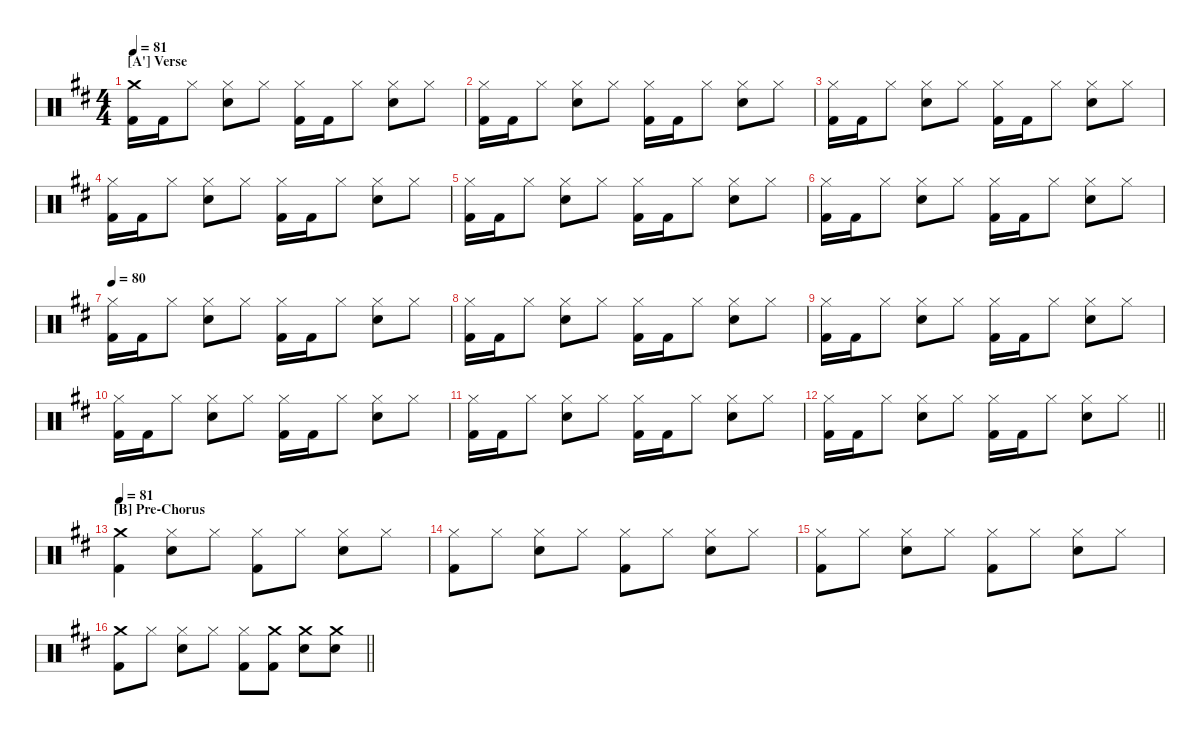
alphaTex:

\defaultSystemsLayout 4
\hideDynamics
\bracketExtendMode nobrackets
\singleTrackTrackNamePolicy hidden
\multiTrackTrackNamePolicy hidden
\otherSystemsTrackNameOrientation horizontal
\track ("Drumkit" "Drums") {defaultSystemsLayout 4 instrument percussion}
\staff {score}
\articulation defaults
\ts (4 4)
\section ("A'" "Verse")
\tempo 81
\clef neutral
\ks d
("Kick (hit) 2"{acc forcenatural} "Crash medium (hit)"{acc forcenatural}).16{dy f beam Down} "Kick (hit) 2"{acc forcenatural}.16{beam Down} "Hi-Hat (closed)"{acc forcenatural}.8{beam Down} ("Snare (hit) 2"{acc forcenatural} "Hi-Hat (closed)"{acc forcenatural}).8{beam Down} "Hi-Hat (closed)"{acc forcenatural}.8{beam Down} ("Kick (hit) 2"{acc forcenatural} "Hi-Hat (closed)"{acc forcenatural}).16{beam Down} "Kick (hit) 2"{acc forcenatural}.16{beam Down} "Hi-Hat (closed)"{acc forcenatural}.8{beam Down} ("Snare (hit) 2"{acc forcenatural} "Hi-Hat (closed)"{acc forcenatural}).8{beam Down} "Hi-Hat (closed)"{acc forcenatural}.8{beam Down} |
("Kick (hit) 2"{acc forcenatural} "Hi-Hat (closed)"{acc forcenatural}).16{beam Down} "Kick (hit) 2"{acc forcenatural}.16{beam Down} "Hi-Hat (closed)"{acc forcenatural}.8{beam Down} ("Snare (hit) 2"{acc forcenatural} "Hi-Hat (closed)"{acc forcenatural}).8{beam Down} "Hi-Hat (closed)"{acc forcenatural}.8{beam Down} ("Kick (hit) 2"{acc forcenatural} "Hi-Hat (closed)"{acc forcenatural}).16{beam Down} "Kick (hit) 2"{acc forcenatural}.16{beam Down} "Hi-Hat (closed)"{acc forcenatural}.8{beam Down} ("Snare (hit) 2"{acc forcenatural} "Hi-Hat (closed)"{acc forcenatural}).8{beam Down} "Hi-Hat (closed)"{acc forcenatural}.8{beam Down} |
("Kick (hit) 2"{acc forcenatural} "Hi-Hat (closed)"{acc forcenatural}).16{beam Down} "Kick (hit) 2"{acc forcenatural}.16{beam Down} "Hi-Hat (closed)"{acc forcenatural}.8{beam Down} ("Snare (hit) 2"{acc forcenatural} "Hi-Hat (closed)"{acc forcenatural}).8{beam Down} "Hi-Hat (closed)"{acc forcenatural}.8{beam Down} ("Kick (hit) 2"{acc forcenatural} "Hi-Hat (closed)"{acc forcenatural}).16{beam Down} "Kick (hit) 2"{acc forcenatural}.16{beam Down} "Hi-Hat (closed)"{acc forcenatural}.8{beam Down} ("Snare (hit) 2"{acc forcenatural} "Hi-Hat (closed)"{acc forcenatural}).8{beam Down} "Hi-Hat (closed)"{acc forcenatural}.8{beam Down} |
("Kick (hit) 2"{acc forcenatural} "Hi-Hat (closed)"{acc forcenatural}).16{beam Down} "Kick (hit) 2"{acc forcenatural}.16{beam Down} "Hi-Hat (closed)"{acc forcenatural}.8{beam Down} ("Snare (hit) 2"{acc forcenatural} "Hi-Hat (closed)"{acc forcenatural}).8{beam Down} "Hi-Hat (closed)"{acc forcenatural}.8{beam Down} ("Kick (hit) 2"{acc forcenatural} "Hi-Hat (closed)"{acc forcenatural}).16{beam Down} "Kick (hit) 2"{acc forcenatural}.16{beam Down} "Hi-Hat (closed)"{acc forcenatural}.8{beam Down} ("Snare (hit) 2"{acc forcenatural} "Hi-Hat (closed)"{acc forcenatural}).8{beam Down} "Hi-Hat (closed)"{acc forcenatural}.8{beam Down} |
("Kick (hit) 2"{acc forcenatural} "Hi-Hat (closed)"{acc forcenatural}).16{beam Down} "Kick (hit) 2"{acc forcenatural}.16{beam Down} "Hi-Hat (closed)"{acc forcenatural}.8{beam Down} ("Snare (hit) 2"{acc forcenatural} "Hi-Hat (closed)"{acc forcenatural}).8{beam Down} "Hi-Hat (closed)"{acc forcenatural}.8{beam Down} ("Kick (hit) 2"{acc forcenatural} "Hi-Hat (closed)"{acc forcenatural}).16{beam Down} "Kick (hit) 2"{acc forcenatural}.16{beam Down} "Hi-Hat (closed)"{acc forcenatural}.8{beam Down} ("Snare (hit) 2"{acc forcenatural} "Hi-Hat (closed)"{acc forcenatural}).8{beam Down} "Hi-Hat (closed)"{acc forcenatural}.8{beam Down} |
("Kick (hit) 2"{acc forcenatural} "Hi-Hat (closed)"{acc forcenatural}).16{beam Down} "Kick (hit) 2"{acc forcenatural}.16{beam Down} "Hi-Hat (closed)"{acc forcenatural}.8{beam Down} ("Snare (hit) 2"{acc forcenatural} "Hi-Hat (closed)"{acc forcenatural}).8{beam Down} "Hi-Hat (closed)"{acc forcenatural}.8{beam Down} ("Kick (hit) 2"{acc forcenatural} "Hi-Hat (closed)"{acc forcenatural}).16{beam Down} "Kick (hit) 2"{acc forcenatural}.16{beam Down} "Hi-Hat (closed)"{acc forcenatural}.8{beam Down} ("Snare (hit) 2"{acc forcenatural} "Hi-Hat (closed)"{acc forcenatural}).8{beam Down} "Hi-Hat (closed)"{acc forcenatural}.8{beam Down} |
\tempo 80
("Kick (hit) 2"{acc forcenatural} "Hi-Hat (closed)"{acc forcenatural}).16{beam Down} "Kick (hit) 2"{acc forcenatural}.16{beam Down} "Hi-Hat (closed)"{acc forcenatural}.8{beam Down} ("Snare (hit) 2"{acc forcenatural} "Hi-Hat (closed)"{acc forcenatural}).8{beam Down} "Hi-Hat (closed)"{acc forcenatural}.8{beam Down} ("Kick (hit) 2"{acc forcenatural} "Hi-Hat (closed)"{acc forcenatural}).16{beam Down} "Kick (hit) 2"{acc forcenatural}.16{beam Down} "Hi-Hat (closed)"{acc forcenatural}.8{beam Down} ("Snare (hit) 2"{acc forcenatural} "Hi-Hat (closed)"{acc forcenatural}).8{beam Down} "Hi-Hat (closed)"{acc forcenatural}.8{beam Down} |
("Kick (hit) 2"{acc forcenatural} "Hi-Hat (closed)"{acc forcenatural}).16{beam Down} "Kick (hit) 2"{acc forcenatural}.16{beam Down} "Hi-Hat (closed)"{acc forcenatural}.8{beam Down} ("Snare (hit) 2"{acc forcenatural} "Hi-Hat (closed)"{acc forcenatural}).8{beam Down} "Hi-Hat (closed)"{acc forcenatural}.8{beam Down} ("Kick (hit) 2"{acc forcenatural} "Hi-Hat (closed)"{acc forcenatural}).16{beam Down} "Kick (hit) 2"{acc forcenatural}.16{beam Down} "Hi-Hat (closed)"{acc forcenatural}.8{beam Down} ("Snare (hit) 2"{acc forcenatural} "Hi-Hat (closed)"{acc forcenatural}).8{beam Down} "Hi-Hat (closed)"{acc forcenatural}.8{beam Down} |
("Kick (hit) 2"{acc forcenatural} "Hi-Hat (closed)"{acc forcenatural}).16{beam Down} "Kick (hit) 2"{acc forcenatural}.16{beam Down} "Hi-Hat (closed)"{acc forcenatural}.8{beam Down} ("Snare (hit) 2"{acc forcenatural} "Hi-Hat (closed)"{acc forcenatural}).8{beam Down} "Hi-Hat (closed)"{acc forcenatural}.8{beam Down} ("Kick (hit) 2"{acc forcenatural} "Hi-Hat (closed)"{acc forcenatural}).16{beam Down} "Kick (hit) 2"{acc forcenatural}.16{beam Down} "Hi-Hat (closed)"{acc forcenatural}.8{beam Down} ("Snare (hit) 2"{acc forcenatural} "Hi-Hat (closed)"{acc forcenatural}).8{beam Down} "Hi-Hat (closed)"{acc forcenatural}.8{beam Down} |
("Kick (hit) 2"{acc forcenatural} "Hi-Hat (closed)"{acc forcenatural}).16{beam Down} "Kick (hit) 2"{acc forcenatural}.16{beam Down} "Hi-Hat (closed)"{acc forcenatural}.8{beam Down} ("Snare (hit) 2"{acc forcenatural} "Hi-Hat (closed)"{acc forcenatural}).8{beam Down} "Hi-Hat (closed)"{acc forcenatural}.8{beam Down} ("Kick (hit) 2"{acc forcenatural} "Hi-Hat (closed)"{acc forcenatural}).16{beam Down} "Kick (hit) 2"{acc forcenatural}.16{beam Down} "Hi-Hat (closed)"{acc forcenatural}.8{beam Down} ("Snare (hit) 2"{acc forcenatural} "Hi-Hat (closed)"{acc forcenatural}).8{beam Down} "Hi-Hat (closed)"{acc forcenatural}.8{beam Down} |
("Kick (hit) 2"{acc forcenatural} "Hi-Hat (closed)"{acc forcenatural}).16{beam Down} "Kick (hit) 2"{acc forcenatural}.16{beam Down} "Hi-Hat (closed)"{acc forcenatural}.8{beam Down} ("Snare (hit) 2"{acc forcenatural} "Hi-Hat (closed)"{acc forcenatural}).8{beam Down} "Hi-Hat (closed)"{acc forcenatural}.8{beam Down} ("Kick (hit) 2"{acc forcenatural} "Hi-Hat (closed)"{acc forcenatural}).16{beam Down} "Kick (hit) 2"{acc forcenatural}.16{beam Down} "Hi-Hat (closed)"{acc forcenatural}.8{beam Down} ("Snare (hit) 2"{acc forcenatural} "Hi-Hat (closed)"{acc forcenatural}).8{beam Down} "Hi-Hat (closed)"{acc forcenatural}.8{beam Down} |
\barLineRight lightlight
("Kick (hit) 2"{acc forcenatural} "Hi-Hat (closed)"{acc forcenatural}).16{beam Down} "Kick (hit) 2"{acc forcenatural}.16{beam Down} "Hi-Hat (closed)"{acc forcenatural}.8{beam Down} ("Snare (hit) 2"{acc forcenatural} "Hi-Hat (closed)"{acc forcenatural}).8{beam Down} "Hi-Hat (closed)"{acc forcenatural}.8{beam Down} ("Kick (hit) 2"{acc forcenatural} "Hi-Hat (closed)"{acc forcenatural}).16{beam Down} "Kick (hit) 2"{acc forcenatural}.16{beam Down} "Hi-Hat (closed)"{acc forcenatural}.8{beam Down} ("Snare (hit) 2"{acc forcenatural} "Hi-Hat (closed)"{acc forcenatural}).8{beam Down} "Hi-Hat (closed)"{acc forcenatural}.8{beam Down} |
\section ("B" "Pre-Chorus")
\tempo 81
("Kick (hit) 2"{acc forcenatural} "Crash medium (hit)"{acc forcenatural}).4{beam Down} ("Snare (hit) 2"{acc forcenatural} "Hi-Hat (closed)"{acc forcenatural}).8{beam Down} "Hi-Hat (closed)"{acc forcenatural}.8{beam Down} ("Kick (hit) 2"{acc forcenatural} "Hi-Hat (closed)"{acc forcenatural}).8{beam Down} "Hi-Hat (closed)"{acc forcenatural}.8{beam Down} ("Snare (hit) 2"{acc forcenatural} "Hi-Hat (closed)"{acc forcenatural}).8{beam Down} "Hi-Hat (closed)"{acc forcenatural}.8{beam Down} |
("Kick (hit) 2"{acc forcenatural} "Hi-Hat (closed)"{acc forcenatural}).8{beam Down} "Hi-Hat (closed)"{acc forcenatural}.8{beam Down} ("Snare (hit) 2"{acc forcenatural} "Hi-Hat (closed)"{acc forcenatural}).8{beam Down} "Hi-Hat (closed)"{acc forcenatural}.8{beam Down} ("Kick (hit) 2"{acc forcenatural} "Hi-Hat (closed)"{acc forcenatural}).8{beam Down} "Hi-Hat (closed)"{acc forcenatural}.8{beam Down} ("Snare (hit) 2"{acc forcenatural} "Hi-Hat (closed)"{acc forcenatural}).8{beam Down} "Hi-Hat (closed)"{acc forcenatural}.8{beam Down} |
("Kick (hit) 2"{acc forcenatural} "Hi-Hat (closed)"{acc forcenatural}).8{beam Down} "Hi-Hat (closed)"{acc forcenatural}.8{beam Down} ("Snare (hit) 2"{acc forcenatural} "Hi-Hat (closed)"{acc forcenatural}).8{beam Down} "Hi-Hat (closed)"{acc forcenatural}.8{beam Down} ("Kick (hit) 2"{acc forcenatural} "Hi-Hat (closed)"{acc forcenatural}).8{beam Down} "Hi-Hat (closed)"{acc forcenatural}.8{beam Down} ("Snare (hit) 2"{acc forcenatural} "Hi-Hat (closed)"{acc forcenatural}).8{beam Down} "Hi-Hat (closed)"{acc forcenatural}.8{beam Down} |
\barLineRight lightlight
("Kick (hit) 2"{acc forcenatural} "Crash medium (hit)"{acc forcenatural}).8{beam Down} "Hi-Hat (closed)"{acc forcenatural}.8{beam Down} ("Snare (hit) 2"{acc forcenatural} "Hi-Hat (closed)"{acc forcenatural}).8{beam Down} "Hi-Hat (closed)"{acc forcenatural}.8{beam Down} ("Kick (hit) 2"{acc forcenatural} "Hi-Hat (closed)"{acc forcenatural}).8{beam Down} ("Kick (hit) 2"{acc forcenatural} "Crash medium (hit)"{acc forcenatural}).8{beam Down} ("Snare (hit) 2"{acc forcenatural} "Crash medium (hit)"{acc forcenatural}).8{beam Down} ("Snare (hit) 2"{acc forcenatural} "Crash medium (hit)"{acc forcenatural}).8{beam Down}
